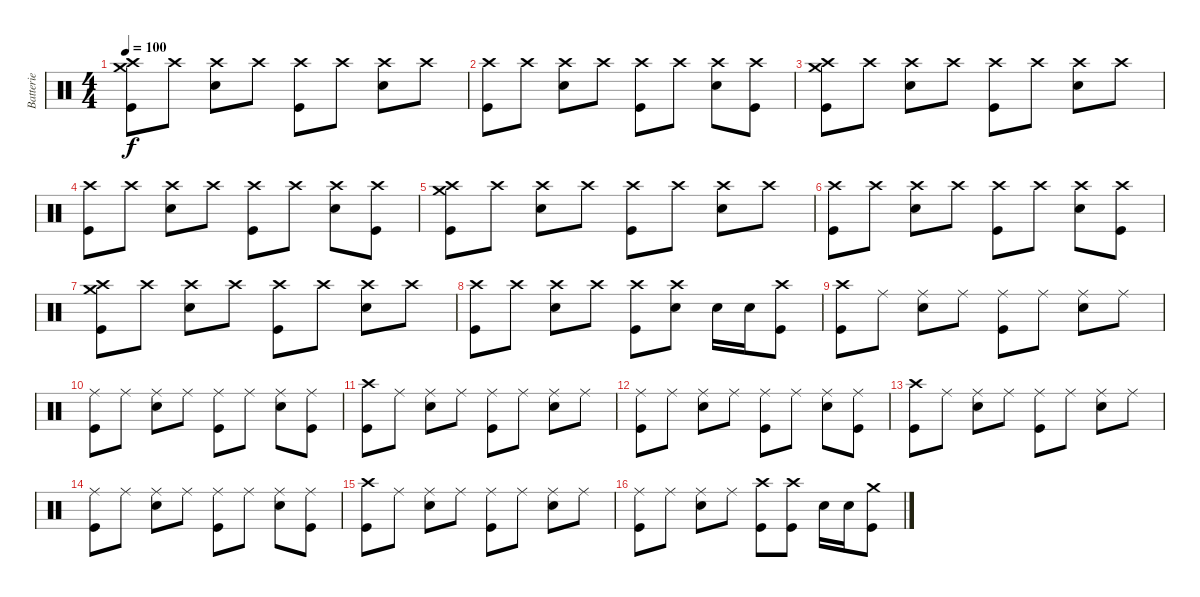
\track ("Batterie" "Batterie") {instrument percussion}
\staff {score}
\articulation defaults
\ts (4 4)
\tempo 100
\clef neutral
\ks c
("Crash medium (hit)" "Crash high (hit)" "Kick (hit)").8{dy f} "Crash high (hit)".8 ("Crash high (hit)" "Electric Snare (hit)").8 "Crash high (hit)".8 ("Crash high (hit)" "Kick (hit)").8 "Crash high (hit)".8 ("Crash high (hit)" "Electric Snare (hit)").8 "Crash high (hit)".8 |
("Crash high (hit)" "Kick (hit)").8 "Crash high (hit)".8 ("Crash high (hit)" "Electric Snare (hit)").8 "Crash high (hit)".8 ("Crash high (hit)" "Kick (hit)").8 "Crash high (hit)".8 ("Crash high (hit)" "Electric Snare (hit)").8 ("Crash high (hit)" "Kick (hit)").8 |
("Crash medium (hit)" "Crash high (hit)" "Kick (hit)").8 "Crash high (hit)".8 ("Crash high (hit)" "Electric Snare (hit)").8 "Crash high (hit)".8 ("Crash high (hit)" "Kick (hit)").8 "Crash high (hit)".8 ("Crash high (hit)" "Electric Snare (hit)").8 "Crash high (hit)".8 |
("Crash high (hit)" "Kick (hit)").8 "Crash high (hit)".8 ("Crash high (hit)" "Electric Snare (hit)").8 "Crash high (hit)".8 ("Crash high (hit)" "Kick (hit)").8 "Crash high (hit)".8 ("Crash high (hit)" "Electric Snare (hit)").8 ("Crash high (hit)" "Kick (hit)").8 |
("Crash medium (hit)" "Crash high (hit)" "Kick (hit)").8 "Crash high (hit)".8 ("Crash high (hit)" "Electric Snare (hit)").8 "Crash high (hit)".8 ("Crash high (hit)" "Kick (hit)").8 "Crash high (hit)".8 ("Crash high (hit)" "Electric Snare (hit)").8 "Crash high (hit)".8 |
("Crash high (hit)" "Kick (hit)").8 "Crash high (hit)".8 ("Crash high (hit)" "Electric Snare (hit)").8 "Crash high (hit)".8 ("Crash high (hit)" "Kick (hit)").8 "Crash high (hit)".8 ("Crash high (hit)" "Electric Snare (hit)").8 ("Crash high (hit)" "Kick (hit)").8 |
("Crash medium (hit)" "Crash high (hit)" "Kick (hit)").8 "Crash high (hit)".8 ("Crash high (hit)" "Electric Snare (hit)").8 "Crash high (hit)".8 ("Crash high (hit)" "Kick (hit)").8 "Crash high (hit)".8 ("Crash high (hit)" "Electric Snare (hit)").8 "Crash high (hit)".8 |
("Crash high (hit)" "Kick (hit)").8 "Crash high (hit)".8 ("Crash high (hit)" "Electric Snare (hit)").8 "Crash high (hit)".8 ("Crash high (hit)" "Kick (hit)").8 ("Crash high (hit)" "Electric Snare (hit)").8 "Electric Snare (hit)".16 "Electric Snare (hit)".16 ("Crash high (hit)" "Kick (hit)").8 |
("Crash high (hit)" "Kick (hit)").8 "Ride (middle)".8 ("Ride (middle)" "Electric Snare (hit)").8 "Ride (middle)".8 ("Ride (middle)" "Kick (hit)").8 "Ride (middle)".8 ("Ride (middle)" "Electric Snare (hit)").8 "Ride (middle)".8 |
("Ride (middle)" "Kick (hit)").8 "Ride (middle)".8 ("Ride (middle)" "Electric Snare (hit)").8 "Ride (middle)".8 ("Ride (middle)" "Kick (hit)").8 "Ride (middle)".8 ("Ride (middle)" "Electric Snare (hit)").8 ("Ride (middle)" "Kick (hit)").8 |
("Crash high (hit)" "Kick (hit)").8 "Ride (middle)".8 ("Ride (middle)" "Electric Snare (hit)").8 "Ride (middle)".8 ("Ride (middle)" "Kick (hit)").8 "Ride (middle)".8 ("Ride (middle)" "Electric Snare (hit)").8 "Ride (middle)".8 |
("Ride (middle)" "Kick (hit)").8 "Ride (middle)".8 ("Ride (middle)" "Electric Snare (hit)").8 "Ride (middle)".8 ("Ride (middle)" "Kick (hit)").8 "Ride (middle)".8 ("Ride (middle)" "Electric Snare (hit)").8 ("Ride (middle)" "Kick (hit)").8 |
("Crash high (hit)" "Kick (hit)").8 "Ride (middle)".8 ("Ride (middle)" "Electric Snare (hit)").8 "Ride (middle)".8 ("Ride (middle)" "Kick (hit)").8 "Ride (middle)".8 ("Ride (middle)" "Electric Snare (hit)").8 "Ride (middle)".8 |
("Ride (middle)" "Kick (hit)").8 "Ride (middle)".8 ("Ride (middle)" "Electric Snare (hit)").8 "Ride (middle)".8 ("Ride (middle)" "Kick (hit)").8 "Ride (middle)".8 ("Ride (middle)" "Electric Snare (hit)").8 ("Ride (middle)" "Kick (hit)").8 |
("Crash high (hit)" "Kick (hit)").8 "Ride (middle)".8 ("Ride (middle)" "Electric Snare (hit)").8 "Ride (middle)".8 ("Ride (middle)" "Kick (hit)").8 "Ride (middle)".8 ("Ride (middle)" "Electric Snare (hit)").8 "Ride (middle)".8 |
("Ride (middle)" "Kick (hit)").8 "Ride (middle)".8 ("Ride (middle)" "Electric Snare (hit)").8 "Ride (middle)".8 ("Crash high (hit)" "Kick (hit)").8 ("Crash high (hit)" "Kick (hit)").8 "Electric Snare (hit)".16 "Electric Snare (hit)".16 ("Crash medium (hit)" "Kick (hit)").8
